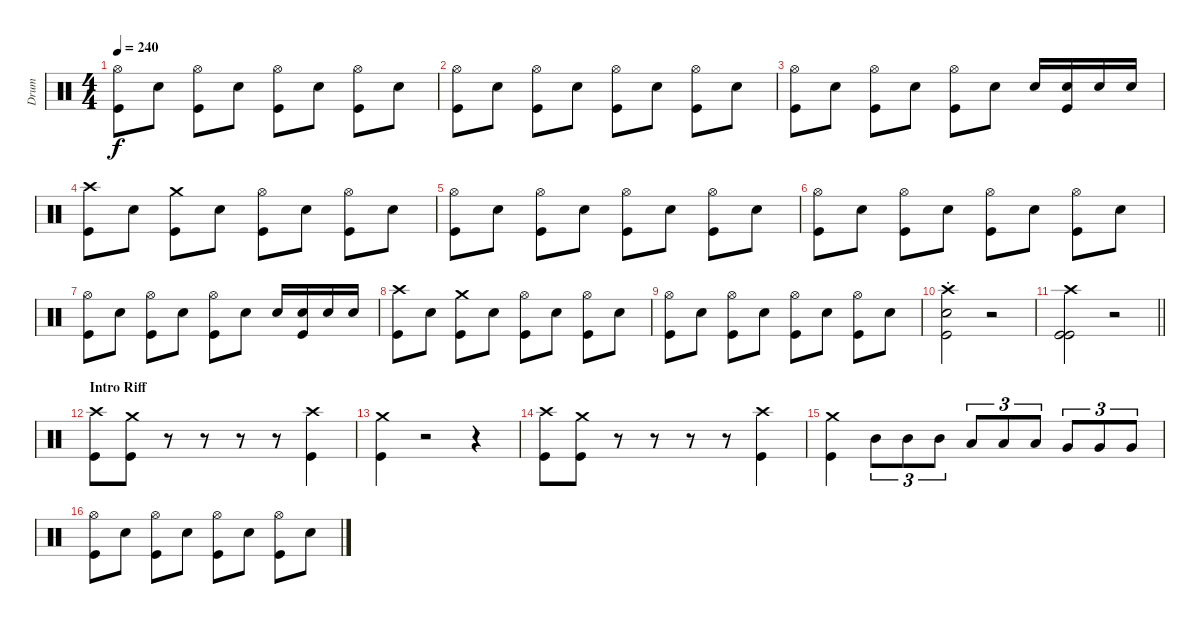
\track ("Drum" "Drum") {instrument percussion}
\staff {score}
\articulation defaults
\ts (4 4)
\tempo 240
\clef neutral
\ks c
("Hi-Hat (open)" "Kick (hit)").8{dy f} "Snare (hit) 2".8 ("Hi-Hat (open)" "Kick (hit)").8 "Snare (hit) 2".8 ("Hi-Hat (open)" "Kick (hit)").8 "Snare (hit) 2".8 ("Hi-Hat (open)" "Kick (hit)").8 "Snare (hit) 2".8 |
("Hi-Hat (open)" "Kick (hit)").8 "Snare (hit) 2".8 ("Hi-Hat (open)" "Kick (hit)").8 "Snare (hit) 2".8 ("Hi-Hat (open)" "Kick (hit)").8 "Snare (hit) 2".8 ("Hi-Hat (open)" "Kick (hit)").8 "Snare (hit) 2".8 |
("Hi-Hat (open)" "Kick (hit)").8 "Snare (hit) 2".8 ("Hi-Hat (open)" "Kick (hit)").8 "Snare (hit) 2".8 ("Hi-Hat (open)" "Kick (hit)").8 "Snare (hit) 2".8 "Snare (hit) 2".16 ("Snare (hit) 2" "Kick (hit)").16 "Snare (hit) 2".16 "Snare (hit) 2".16 |
("Crash high (hit)" "Kick (hit)").8 "Snare (hit) 2".8 ("Crash medium (hit)" "Kick (hit)").8 "Snare (hit) 2".8 ("Hi-Hat (open)" "Kick (hit)").8 "Snare (hit) 2".8 ("Hi-Hat (open)" "Kick (hit)").8 "Snare (hit) 2".8 |
("Hi-Hat (open)" "Kick (hit)").8 "Snare (hit) 2".8 ("Hi-Hat (open)" "Kick (hit)").8 "Snare (hit) 2".8 ("Hi-Hat (open)" "Kick (hit)").8 "Snare (hit) 2".8 ("Hi-Hat (open)" "Kick (hit)").8 "Snare (hit) 2".8 |
("Hi-Hat (open)" "Kick (hit)").8 "Snare (hit) 2".8 ("Hi-Hat (open)" "Kick (hit)").8 "Snare (hit) 2".8 ("Hi-Hat (open)" "Kick (hit)").8 "Snare (hit) 2".8 ("Hi-Hat (open)" "Kick (hit)").8 "Snare (hit) 2".8 |
("Hi-Hat (open)" "Kick (hit)").8 "Snare (hit) 2".8 ("Hi-Hat (open)" "Kick (hit)").8 "Snare (hit) 2".8 ("Hi-Hat (open)" "Kick (hit)").8 "Snare (hit) 2".8 "Snare (hit) 2".16 ("Snare (hit) 2" "Kick (hit)").16 "Snare (hit) 2".16 "Snare (hit) 2".16 |
("Crash high (hit)" "Kick (hit)").8 "Snare (hit) 2".8 ("Crash medium (hit)" "Kick (hit)").8 "Snare (hit) 2".8 ("Hi-Hat (open)" "Kick (hit)").8 "Snare (hit) 2".8 ("Hi-Hat (open)" "Kick (hit)").8 "Snare (hit) 2".8 |
("Hi-Hat (open)" "Kick (hit)").8 "Snare (hit) 2".8 ("Hi-Hat (open)" "Kick (hit)").8 "Snare (hit) 2".8 ("Hi-Hat (open)" "Kick (hit)").8 "Snare (hit) 2".8 ("Hi-Hat (open)" "Kick (hit)").8 "Snare (hit) 2".8 |
("Crash high (hit)"{st} "Snare (hit) 2" "Kick (hit)").2 r.2 |
\barLineRight lightlight
("Crash high (hit)" "Kick (hit)" "Kick (hit)").2 r.2 |
\section ("" "Intro Riff")
("Crash high (hit)" "Kick (hit)").8 ("Crash medium (hit)" "Kick (hit)").8 r.8 r.8 r.8 r.8 ("Crash high (hit)" "Kick (hit)").4 |
("Crash medium (hit)" "Kick (hit)").4 r.2 r.4 |
("Crash high (hit)" "Kick (hit)").8 ("Crash medium (hit)" "Kick (hit)").8 r.8 r.8 r.8 r.8 ("Crash high (hit)" "Kick (hit)").4 |
("Crash medium (hit)" "Kick (hit)").4 "Mid Tom (hit)".8{tu (3 2)} "Mid Tom (hit)".8{tu (3 2)} "Mid Tom (hit)".8{tu (3 2)} "Low Tom (hit)".8{tu (3 2)} "Low Tom (hit)".8{tu (3 2)} "Low Tom (hit)".8{tu (3 2)} "Very Low Tom (hit)".8{tu (3 2)} "Very Low Tom (hit)".8{tu (3 2)} "Very Low Tom (hit)".8{tu (3 2)} |
("Hi-Hat (open)" "Kick (hit)").8 "Snare (hit) 2".8 ("Hi-Hat (open)" "Kick (hit)").8 "Snare (hit) 2".8 ("Hi-Hat (open)" "Kick (hit)").8 "Snare (hit) 2".8 ("Hi-Hat (open)" "Kick (hit)").8 "Snare (hit) 2".8
